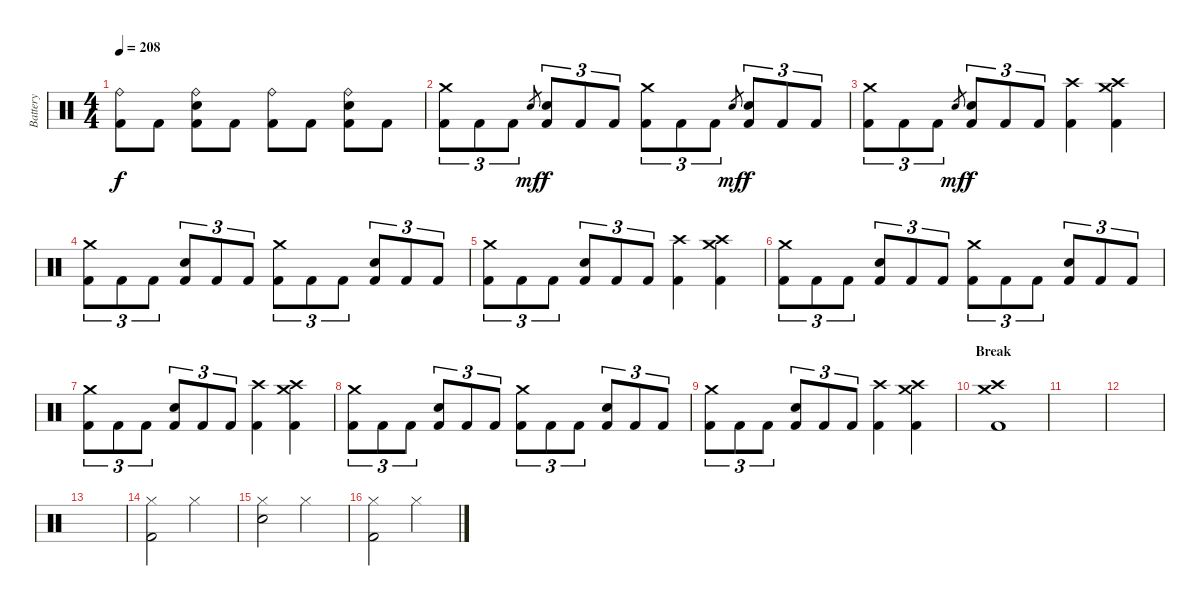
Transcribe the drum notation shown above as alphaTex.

\track ("Battery" "Battery") {instrument percussion}
\staff {score}
\articulation defaults
\ts (4 4)
\tempo 208
\clef neutral
\ks c
("Ride (bell)" "Kick (hit) 2").8{dy f} "Kick (hit) 2".8 ("Ride (bell)" "Electric Snare (hit)" "Kick (hit) 2").8 "Kick (hit) 2".8 ("Ride (bell)" "Kick (hit) 2").8 "Kick (hit) 2".8 ("Ride (bell)" "Electric Snare (hit)" "Kick (hit) 2").8 "Kick (hit) 2".8 |
("Crash medium (hit)" "Kick (hit) 2").8{tu (3 2)} "Kick (hit) 2".8{tu (3 2)} "Kick (hit) 2".8{tu (3 2)} "Electric Snare (hit)".8{gr dy mf} ("Electric Snare (hit)" "Kick (hit) 2").8{tu (3 2) dy f} "Kick (hit) 2".8{tu (3 2)} "Kick (hit) 2".8{tu (3 2)} ("Crash medium (hit)" "Kick (hit) 2").8{tu (3 2)} "Kick (hit) 2".8{tu (3 2)} "Kick (hit) 2".8{tu (3 2)} "Electric Snare (hit)".8{gr dy mf} ("Electric Snare (hit)" "Kick (hit) 2").8{tu (3 2) dy f} "Kick (hit) 2".8{tu (3 2)} "Kick (hit) 2".8{tu (3 2)} |
("Crash medium (hit)" "Kick (hit) 2").8{tu (3 2)} "Kick (hit) 2".8{tu (3 2)} "Kick (hit) 2".8{tu (3 2)} "Electric Snare (hit)".8{gr dy mf} ("Electric Snare (hit)" "Kick (hit) 2").8{tu (3 2) dy f} "Kick (hit) 2".8{tu (3 2)} "Kick (hit) 2".8{tu (3 2)} ("Crash high (hit)" "Kick (hit) 2").4 ("Crash high (hit)" "Crash medium (hit)" "Kick (hit) 2").4 |
("Crash medium (hit)" "Kick (hit) 2").8{tu (3 2)} "Kick (hit) 2".8{tu (3 2)} "Kick (hit) 2".8{tu (3 2)} ("Electric Snare (hit)" "Kick (hit) 2").8{tu (3 2)} "Kick (hit) 2".8{tu (3 2)} "Kick (hit) 2".8{tu (3 2)} ("Crash medium (hit)" "Kick (hit) 2").8{tu (3 2)} "Kick (hit) 2".8{tu (3 2)} "Kick (hit) 2".8{tu (3 2)} ("Electric Snare (hit)" "Kick (hit) 2").8{tu (3 2)} "Kick (hit) 2".8{tu (3 2)} "Kick (hit) 2".8{tu (3 2)} |
("Crash medium (hit)" "Kick (hit) 2").8{tu (3 2)} "Kick (hit) 2".8{tu (3 2)} "Kick (hit) 2".8{tu (3 2)} ("Electric Snare (hit)" "Kick (hit) 2").8{tu (3 2)} "Kick (hit) 2".8{tu (3 2)} "Kick (hit) 2".8{tu (3 2)} ("Crash high (hit)" "Kick (hit) 2").4 ("Crash high (hit)" "Crash medium (hit)" "Kick (hit) 2").4 |
("Crash medium (hit)" "Kick (hit) 2").8{tu (3 2)} "Kick (hit) 2".8{tu (3 2)} "Kick (hit) 2".8{tu (3 2)} ("Electric Snare (hit)" "Kick (hit) 2").8{tu (3 2)} "Kick (hit) 2".8{tu (3 2)} "Kick (hit) 2".8{tu (3 2)} ("Crash medium (hit)" "Kick (hit) 2").8{tu (3 2)} "Kick (hit) 2".8{tu (3 2)} "Kick (hit) 2".8{tu (3 2)} ("Electric Snare (hit)" "Kick (hit) 2").8{tu (3 2)} "Kick (hit) 2".8{tu (3 2)} "Kick (hit) 2".8{tu (3 2)} |
("Crash medium (hit)" "Kick (hit) 2").8{tu (3 2)} "Kick (hit) 2".8{tu (3 2)} "Kick (hit) 2".8{tu (3 2)} ("Electric Snare (hit)" "Kick (hit) 2").8{tu (3 2)} "Kick (hit) 2".8{tu (3 2)} "Kick (hit) 2".8{tu (3 2)} ("Crash high (hit)" "Kick (hit) 2").4 ("Crash high (hit)" "Crash medium (hit)" "Kick (hit) 2").4 |
("Crash medium (hit)" "Kick (hit) 2").8{tu (3 2)} "Kick (hit) 2".8{tu (3 2)} "Kick (hit) 2".8{tu (3 2)} ("Electric Snare (hit)" "Kick (hit) 2").8{tu (3 2)} "Kick (hit) 2".8{tu (3 2)} "Kick (hit) 2".8{tu (3 2)} ("Crash medium (hit)" "Kick (hit) 2").8{tu (3 2)} "Kick (hit) 2".8{tu (3 2)} "Kick (hit) 2".8{tu (3 2)} ("Electric Snare (hit)" "Kick (hit) 2").8{tu (3 2)} "Kick (hit) 2".8{tu (3 2)} "Kick (hit) 2".8{tu (3 2)} |
("Crash medium (hit)" "Kick (hit) 2").8{tu (3 2)} "Kick (hit) 2".8{tu (3 2)} "Kick (hit) 2".8{tu (3 2)} ("Electric Snare (hit)" "Kick (hit) 2").8{tu (3 2)} "Kick (hit) 2".8{tu (3 2)} "Kick (hit) 2".8{tu (3 2)} ("Crash high (hit)" "Kick (hit) 2").4 ("Crash high (hit)" "Crash medium (hit)" "Kick (hit) 2").4 |
\section ("" "Break")
("Crash medium (hit)" "Crash high (hit)" "Kick (hit) 2").1 |
|
|
|
("Hi-Hat (closed)" "Kick (hit) 2").2 "Hi-Hat (closed)".2 |
("Hi-Hat (closed)" "Electric Snare (hit)").2 "Hi-Hat (closed)".2 |
("Hi-Hat (closed)" "Kick (hit) 2").2 "Hi-Hat (closed)".2
